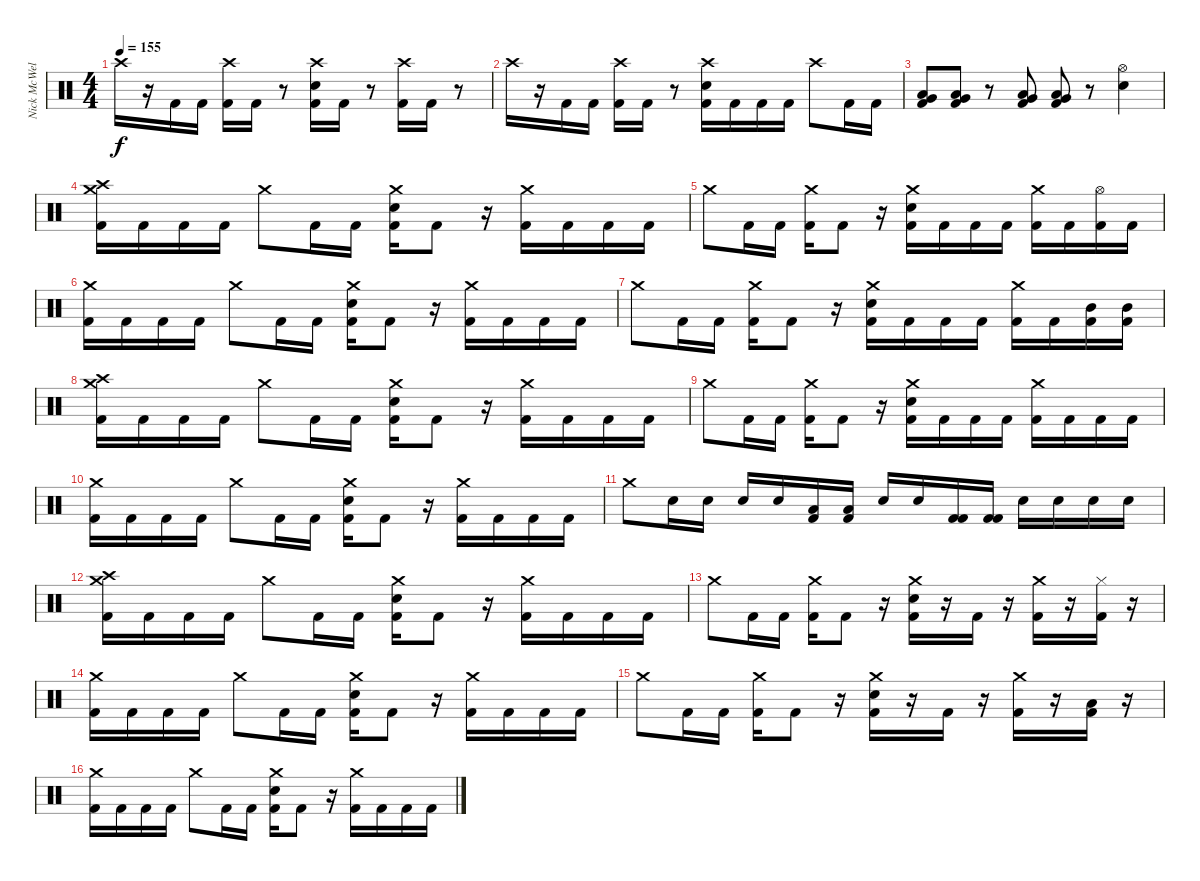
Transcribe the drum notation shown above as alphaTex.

\track ("Nick McWells" "Nick McWel") {instrument percussion}
\staff {score}
\articulation defaults
\ts (4 4)
\tempo 155
\clef neutral
\ks c "Crash high (hit)".16{dy f}
r.16 "Kick (hit) 2".16 "Kick (hit) 2".16 ("Crash high (hit)" "Kick (hit) 2").16 "Kick (hit) 2".16 r.8 ("Crash high (hit)" "Electric Snare (hit)" "Kick (hit) 2").16 "Kick (hit) 2".16 r.8 ("Crash high (hit)" "Kick (hit) 2").16 "Kick (hit) 2".16 r.8 |
"Crash high (hit)".16 r.16 "Kick (hit) 2".16 "Kick (hit) 2".16 ("Crash high (hit)" "Kick (hit) 2").16 "Kick (hit) 2".16 r.8 ("Crash high (hit)" "Electric Snare (hit)" "Kick (hit) 2").16 "Kick (hit) 2".16 "Kick (hit) 2".16 "Kick (hit) 2".16 "Crash high (hit)".8 "Kick (hit) 2".16 "Kick (hit) 2".16 |
("Very Low Tom (hit)" "Low Tom (hit)" "Kick (hit) 2").8 ("Very Low Tom (hit)" "Low Tom (hit)" "Kick (hit) 2").8 r.8 ("Very Low Tom (hit)" "Low Tom (hit)" "Kick (hit) 2").8 ("Very Low Tom (hit)" "Low Tom (hit)" "Kick (hit) 2").8 r.8 ("Hi-Hat (open)" "Electric Snare (hit)").4 |
("Crash high (hit)" "Crash medium (hit)" "Kick (hit) 2").16 "Kick (hit) 2".16 "Kick (hit) 2".16 "Kick (hit) 2".16 "Crash medium (hit)".8 "Kick (hit) 2".16 "Kick (hit) 2".16 ("Crash medium (hit)" "Electric Snare (hit)" "Kick (hit) 2").16 "Kick (hit) 2".8 r.16 ("Crash medium (hit)" "Kick (hit) 2").16 "Kick (hit) 2".16 "Kick (hit) 2".16 "Kick (hit) 2".16 |
"Crash medium (hit)".8 "Kick (hit) 2".16 "Kick (hit) 2".16 ("Crash medium (hit)" "Kick (hit) 2").16 "Kick (hit) 2".8 r.16 ("Crash medium (hit)" "Electric Snare (hit)" "Kick (hit) 2").16 "Kick (hit) 2".16 "Kick (hit) 2".16 "Kick (hit) 2".16 ("Crash medium (hit)" "Kick (hit) 2").16 "Kick (hit) 2".16 ("Hi-Hat (open)" "Kick (hit) 2").16 "Kick (hit) 2".16 |
("Crash medium (hit)" "Kick (hit) 2").16 "Kick (hit) 2".16 "Kick (hit) 2".16 "Kick (hit) 2".16 "Crash medium (hit)".8 "Kick (hit) 2".16 "Kick (hit) 2".16 ("Crash medium (hit)" "Electric Snare (hit)" "Kick (hit) 2").16 "Kick (hit) 2".8 r.16 ("Crash medium (hit)" "Kick (hit) 2").16 "Kick (hit) 2".16 "Kick (hit) 2".16 "Kick (hit) 2".16 |
"Crash medium (hit)".8 "Kick (hit) 2".16 "Kick (hit) 2".16 ("Crash medium (hit)" "Kick (hit) 2").16 "Kick (hit) 2".8 r.16 ("Crash medium (hit)" "Electric Snare (hit)" "Kick (hit) 2").16 "Kick (hit) 2".16 "Kick (hit) 2".16 "Kick (hit) 2".16 ("Crash medium (hit)" "Kick (hit) 2").16 "Kick (hit) 2".16 ("Mid Tom (hit)" "Kick (hit) 2").16 ("Mid Tom (hit)" "Kick (hit) 2").16 |
("Crash high (hit)" "Crash medium (hit)" "Kick (hit) 2").16 "Kick (hit) 2".16 "Kick (hit) 2".16 "Kick (hit) 2".16 "Crash medium (hit)".8 "Kick (hit) 2".16 "Kick (hit) 2".16 ("Crash medium (hit)" "Electric Snare (hit)" "Kick (hit) 2").16 "Kick (hit) 2".8 r.16 ("Crash medium (hit)" "Kick (hit) 2").16 "Kick (hit) 2".16 "Kick (hit) 2".16 "Kick (hit) 2".16 |
"Crash medium (hit)".8 "Kick (hit) 2".16 "Kick (hit) 2".16 ("Crash medium (hit)" "Kick (hit) 2").16 "Kick (hit) 2".8 r.16 ("Crash medium (hit)" "Electric Snare (hit)" "Kick (hit) 2").16 "Kick (hit) 2".16 "Kick (hit) 2".16 "Kick (hit) 2".16 ("Crash medium (hit)" "Kick (hit) 2").16 "Kick (hit) 2".16 "Kick (hit) 2".16 "Kick (hit) 2".16 |
("Crash medium (hit)" "Kick (hit) 2").16 "Kick (hit) 2".16 "Kick (hit) 2".16 "Kick (hit) 2".16 "Crash medium (hit)".8 "Kick (hit) 2".16 "Kick (hit) 2".16 ("Crash medium (hit)" "Electric Snare (hit)" "Kick (hit) 2").16 "Kick (hit) 2".8 r.16 ("Crash medium (hit)" "Kick (hit) 2").16 "Kick (hit) 2".16 "Kick (hit) 2".16 "Kick (hit) 2".16 |
"Crash medium (hit)".8 "Electric Snare (hit)".16 "Electric Snare (hit)".16 "Electric Snare (hit)".16 "Electric Snare (hit)".16 ("Low Tom (hit)" "Kick (hit) 2").16 ("Low Tom (hit)" "Kick (hit) 2").16 "Electric Snare (hit)".16 "Electric Snare (hit)".16 ("Kick (hit) 2" "Kick (hit) 2").16 ("Kick (hit) 2" "Kick (hit) 2").16 "Electric Snare (hit)".16 "Electric Snare (hit)".16 "Electric Snare (hit)".16 "Electric Snare (hit)".16 |
("Crash high (hit)" "Crash medium (hit)" "Kick (hit) 2").16 "Kick (hit) 2".16 "Kick (hit) 2".16 "Kick (hit) 2".16 "Crash medium (hit)".8 "Kick (hit) 2".16 "Kick (hit) 2".16 ("Crash medium (hit)" "Electric Snare (hit)" "Kick (hit) 2").16 "Kick (hit) 2".8 r.16 ("Crash medium (hit)" "Kick (hit) 2").16 "Kick (hit) 2".16 "Kick (hit) 2".16 "Kick (hit) 2".16 |
"Crash medium (hit)".8 "Kick (hit) 2".16 "Kick (hit) 2".16 ("Crash medium (hit)" "Kick (hit) 2").16 "Kick (hit) 2".8 r.16 ("Crash medium (hit)" "Electric Snare (hit)" "Kick (hit) 2").16 r.16 "Kick (hit) 2".16 r.16 ("Crash medium (hit)" "Kick (hit) 2").16 r.16 ("Hi-Hat (closed)" "Kick (hit) 2").16 r.16 |
("Crash medium (hit)" "Kick (hit) 2").16 "Kick (hit) 2".16 "Kick (hit) 2".16 "Kick (hit) 2".16 "Crash medium (hit)".8 "Kick (hit) 2".16 "Kick (hit) 2".16 ("Crash medium (hit)" "Electric Snare (hit)" "Kick (hit) 2").16 "Kick (hit) 2".8 r.16 ("Crash medium (hit)" "Kick (hit) 2").16 "Kick (hit) 2".16 "Kick (hit) 2".16 "Kick (hit) 2".16 |
"Crash medium (hit)".8 "Kick (hit) 2".16 "Kick (hit) 2".16 ("Crash medium (hit)" "Kick (hit) 2").16 "Kick (hit) 2".8 r.16 ("Crash medium (hit)" "Electric Snare (hit)" "Kick (hit) 2").16 r.16 "Kick (hit) 2".16 r.16 ("Crash medium (hit)" "Kick (hit) 2").16 r.16 ("Low Tom (hit)" "Kick (hit) 2").16 r.16 |
("Crash medium (hit)" "Kick (hit) 2").16 "Kick (hit) 2".16 "Kick (hit) 2".16 "Kick (hit) 2".16 "Crash medium (hit)".8 "Kick (hit) 2".16 "Kick (hit) 2".16 ("Crash medium (hit)" "Electric Snare (hit)" "Kick (hit) 2").16 "Kick (hit) 2".8 r.16 ("Crash medium (hit)" "Kick (hit) 2").16 "Kick (hit) 2".16 "Kick (hit) 2".16 "Kick (hit) 2".16
